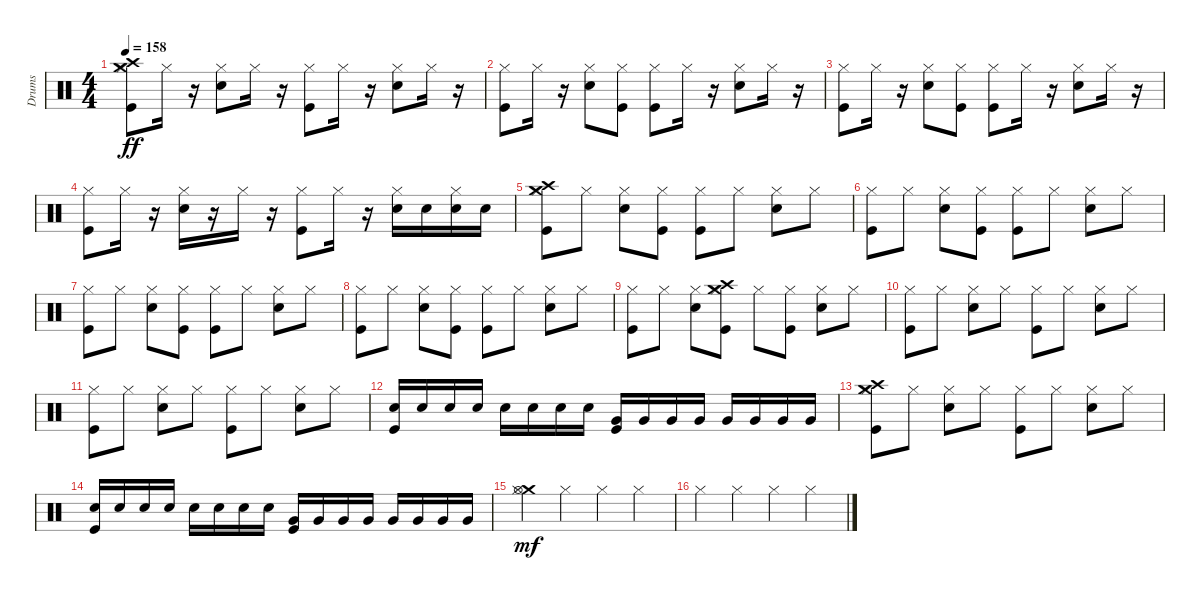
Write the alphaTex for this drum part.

\track ("Drums" "Drums") {instrument percussion}
\staff {score}
\articulation defaults
\ts (4 4)
\tempo 158
\clef neutral
\ks c
("Crash medium (hit)" "Hi-Hat (closed)" "Kick (hit)" "Crash high (hit)").8{dy ff} "Hi-Hat (closed)".16 r.16 ("Snare (hit) 2" "Hi-Hat (closed)").8 "Hi-Hat (closed)".16 r.16 ("Hi-Hat (closed)" "Kick (hit)").8 "Hi-Hat (closed)".16 r.16 ("Snare (hit) 2" "Hi-Hat (closed)").8 "Hi-Hat (closed)".16 r.16 |
("Hi-Hat (closed)" "Kick (hit)").8 "Hi-Hat (closed)".16 r.16 ("Snare (hit) 2" "Hi-Hat (closed)").8 ("Kick (hit)" "Hi-Hat (closed)").8 ("Hi-Hat (closed)" "Kick (hit)").8 "Hi-Hat (closed)".16 r.16 ("Snare (hit) 2" "Hi-Hat (closed)").8 "Hi-Hat (closed)".16 r.16 |
("Hi-Hat (closed)" "Kick (hit)").8 "Hi-Hat (closed)".16 r.16 ("Snare (hit) 2" "Hi-Hat (closed)").8 ("Hi-Hat (closed)" "Kick (hit)").8 ("Kick (hit)" "Hi-Hat (closed)").8 "Hi-Hat (closed)".16 r.16 ("Hi-Hat (closed)" "Snare (hit) 2").8 "Hi-Hat (closed)".16 r.16 |
("Hi-Hat (closed)" "Kick (hit)").8 "Hi-Hat (closed)".16 r.16 ("Snare (hit) 2" "Hi-Hat (closed)").16 r.16 "Hi-Hat (closed)".16 r.16 ("Hi-Hat (closed)" "Kick (hit)").8 "Hi-Hat (closed)".16 r.16 ("Snare (hit) 2" "Hi-Hat (closed)").16 "Snare (hit) 2".16 ("Hi-Hat (closed)" "Snare (hit) 2").16 "Snare (hit) 2".16 |
("Crash medium (hit)" "Kick (hit)" "Hi-Hat (closed)" "Crash high (hit)").8 "Hi-Hat (closed)".8 ("Hi-Hat (closed)" "Snare (hit) 2").8 ("Kick (hit)" "Hi-Hat (closed)").8 ("Kick (hit)" "Hi-Hat (closed)").8 "Hi-Hat (closed)".8 ("Snare (hit) 2" "Hi-Hat (closed)").8 "Hi-Hat (closed)".8 |
("Kick (hit)" "Hi-Hat (closed)").8 "Hi-Hat (closed)".8 ("Snare (hit) 2" "Hi-Hat (closed)").8 ("Kick (hit)" "Hi-Hat (closed)").8 ("Kick (hit)" "Hi-Hat (closed)").8 "Hi-Hat (closed)".8 ("Snare (hit) 2" "Hi-Hat (closed)").8 "Hi-Hat (closed)".8 |
("Kick (hit)" "Hi-Hat (closed)").8 "Hi-Hat (closed)".8 ("Hi-Hat (closed)" "Snare (hit) 2").8 ("Hi-Hat (closed)" "Kick (hit)").8 ("Kick (hit)" "Hi-Hat (closed)").8 "Hi-Hat (closed)".8 ("Hi-Hat (closed)" "Snare (hit) 2").8 "Hi-Hat (closed)".8 |
("Kick (hit)" "Hi-Hat (closed)").8 "Hi-Hat (closed)".8 ("Snare (hit) 2" "Hi-Hat (closed)").8 ("Kick (hit)" "Hi-Hat (closed)").8 ("Hi-Hat (closed)" "Kick (hit)").8 "Hi-Hat (closed)".8 ("Hi-Hat (closed)" "Snare (hit) 2").8 "Hi-Hat (closed)".8 |
("Hi-Hat (closed)" "Kick (hit)").8 "Hi-Hat (closed)".8 ("Snare (hit) 2" "Hi-Hat (closed)").8 ("Crash high (hit)" "Hi-Hat (closed)" "Crash medium (hit)" "Kick (hit)").8 "Hi-Hat (closed)".8 ("Hi-Hat (closed)" "Kick (hit)").8 ("Hi-Hat (closed)" "Snare (hit) 2").8 "Hi-Hat (closed)".8 |
("Hi-Hat (closed)" "Kick (hit)").8 "Hi-Hat (closed)".8 ("Hi-Hat (closed)" "Snare (hit) 2").8 "Hi-Hat (closed)".8 ("Hi-Hat (closed)" "Kick (hit)").8 "Hi-Hat (closed)".8 ("Hi-Hat (closed)" "Snare (hit) 2").8 "Hi-Hat (closed)".8 |
("Kick (hit)" "Hi-Hat (closed)").8 "Hi-Hat (closed)".8 ("Snare (hit) 2" "Hi-Hat (closed)").8 "Hi-Hat (closed)".8 ("Kick (hit)" "Hi-Hat (closed)").8 "Hi-Hat (closed)".8 ("Snare (hit) 2" "Hi-Hat (closed)").8 "Hi-Hat (closed)".8 |
("Kick (hit)" "Electric Snare (hit)").16 "Electric Snare (hit)".16 "Electric Snare (hit)".16 "Electric Snare (hit)".16 "Electric Snare (hit)".16 "Electric Snare (hit)".16 "Electric Snare (hit)".16 "Electric Snare (hit)".16 ("Kick (hit)" "Very Low Tom (hit)").16 "Very Low Tom (hit)".16 "Very Low Tom (hit)".16 "Very Low Tom (hit)".16 "Very Low Tom (hit)".16 "Very Low Tom (hit)".16 "Very Low Tom (hit)".16 "Very Low Tom (hit)".16 |
("Crash medium (hit)" "Hi-Hat (closed)" "Kick (hit)" "Crash high (hit)").8 "Hi-Hat (closed)".8 ("Hi-Hat (closed)" "Snare (hit) 2").8 "Hi-Hat (closed)".8 ("Hi-Hat (closed)" "Kick (hit)").8 "Hi-Hat (closed)".8 ("Hi-Hat (closed)" "Snare (hit) 2").8 "Hi-Hat (closed)".8 |
("Electric Snare (hit)" "Kick (hit)").16 "Electric Snare (hit)".16 "Electric Snare (hit)".16 "Electric Snare (hit)".16 "Electric Snare (hit)".16 "Electric Snare (hit)".16 "Electric Snare (hit)".16 "Electric Snare (hit)".16 ("Very Low Tom (hit)" "Kick (hit)").16 "Very Low Tom (hit)".16 "Very Low Tom (hit)".16 "Very Low Tom (hit)".16 "Very Low Tom (hit)".16 "Very Low Tom (hit)".16 "Very Low Tom (hit)".16 "Very Low Tom (hit)".16 |
("Crash medium (hit)" "Hi-Hat (open)" "Hi-Hat (closed)").4{dy mf} "Hi-Hat (closed)".4 "Hi-Hat (closed)".4 "Hi-Hat (closed)".4 |
"Hi-Hat (closed)".4 "Hi-Hat (closed)".4 "Hi-Hat (closed)".4 "Hi-Hat (closed)".4
